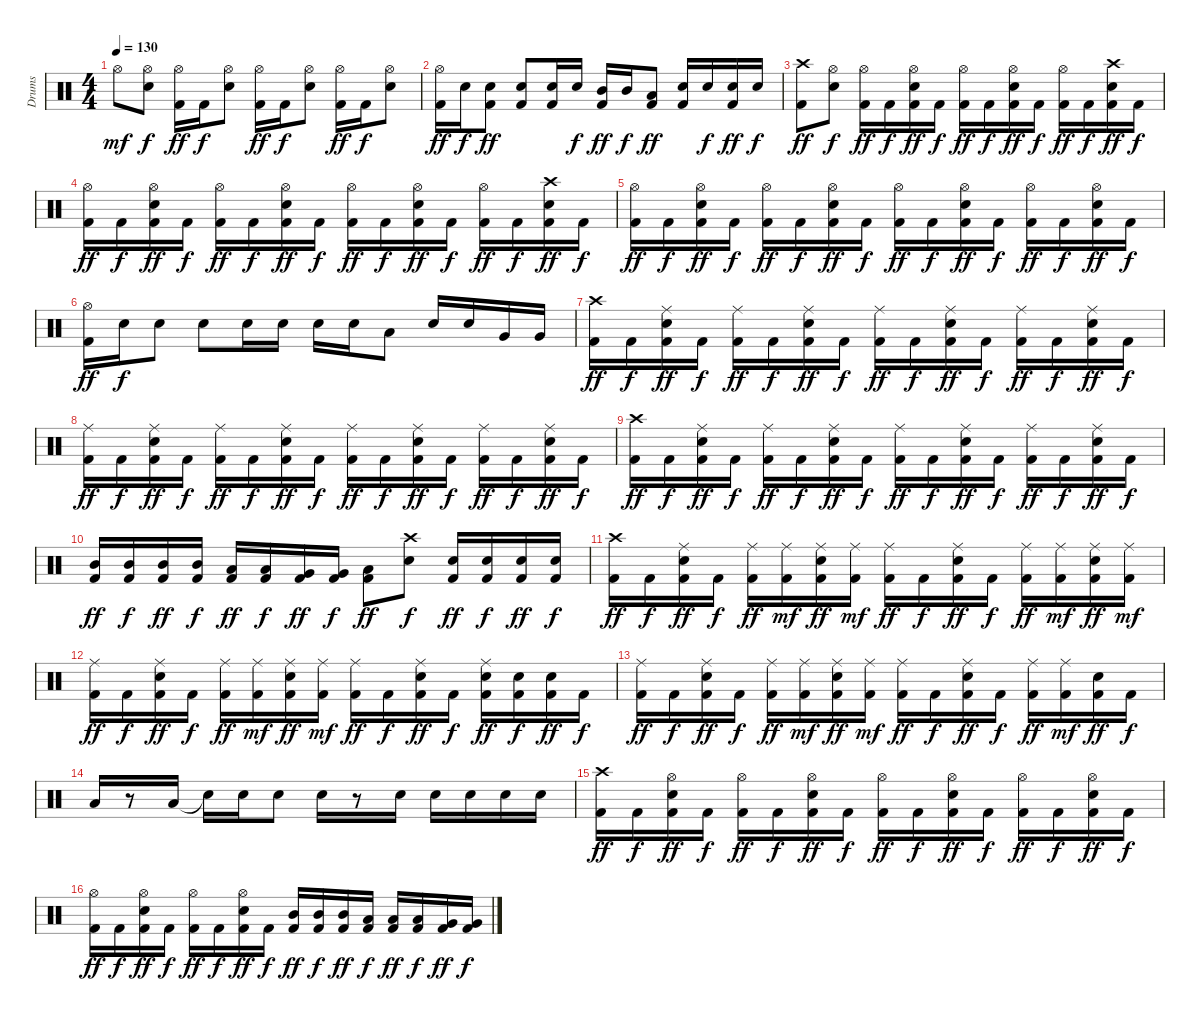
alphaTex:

\track ("Drums" "Drums") {instrument percussion}
\staff {score}
\articulation defaults
\ts (4 4)
\tempo 130
\clef neutral
\ks c "Hi-Hat (open)".8{dy mf}
("Hi-Hat (open)" "Electric Snare (hit)").8{dy f} ("Hi-Hat (open)" "Kick (hit) 2").16{dy ff} "Kick (hit) 2".16{dy f} ("Hi-Hat (open)" "Electric Snare (hit)").8 ("Hi-Hat (open)" "Kick (hit) 2").16{dy ff} "Kick (hit) 2".16{dy f} ("Hi-Hat (open)" "Electric Snare (hit)").8 ("Hi-Hat (open)" "Kick (hit) 2").16{dy ff} "Kick (hit) 2".16{dy f} ("Hi-Hat (open)" "Electric Snare (hit)").8 |
("Hi-Hat (open)" "Kick (hit) 2").16{dy ff} "Electric Snare (hit)".16{dy f} ("Electric Snare (hit)" "Kick (hit) 2").8{dy ff} ("Electric Snare (hit)" "Kick (hit) 2").8 ("Electric Snare (hit)" "Kick (hit) 2").16 "Electric Snare (hit)".16{dy f} ("Mid Tom (hit)" "Kick (hit) 2").16{dy ff} "Mid Tom (hit)".16{dy f} ("Low Tom (hit)" "Kick (hit) 2").8{dy ff} ("Electric Snare (hit)" "Kick (hit) 2").16 "Electric Snare (hit)".16{dy f} ("Electric Snare (hit)" "Kick (hit) 2").16{dy ff} "Electric Snare (hit)".16{dy f} |
("Crash high (hit)" "Kick (hit) 2").8{dy ff} ("Hi-Hat (open)" "Electric Snare (hit)").8{dy f} ("Hi-Hat (open)" "Kick (hit) 2").16{dy ff} "Kick (hit) 2".16{dy f} ("Hi-Hat (open)" "Electric Snare (hit)" "Kick (hit) 2").16{dy ff} "Kick (hit) 2".16{dy f} ("Hi-Hat (open)" "Kick (hit) 2").16{dy ff} "Kick (hit) 2".16{dy f} ("Hi-Hat (open)" "Electric Snare (hit)" "Kick (hit) 2").16{dy ff} "Kick (hit) 2".16{dy f} ("Hi-Hat (open)" "Kick (hit) 2").16{dy ff} "Kick (hit) 2".16{dy f} ("Crash high (hit)" "Electric Snare (hit)" "Kick (hit) 2").16{dy ff} "Kick (hit) 2".16{dy f} |
("Hi-Hat (open)" "Kick (hit) 2").16{dy ff} "Kick (hit) 2".16{dy f} ("Hi-Hat (open)" "Electric Snare (hit)" "Kick (hit) 2").16{dy ff} "Kick (hit) 2".16{dy f} ("Hi-Hat (open)" "Kick (hit) 2").16{dy ff} "Kick (hit) 2".16{dy f} ("Hi-Hat (open)" "Electric Snare (hit)" "Kick (hit) 2").16{dy ff} "Kick (hit) 2".16{dy f} ("Hi-Hat (open)" "Kick (hit) 2").16{dy ff} "Kick (hit) 2".16{dy f} ("Hi-Hat (open)" "Electric Snare (hit)" "Kick (hit) 2").16{dy ff} "Kick (hit) 2".16{dy f} ("Hi-Hat (open)" "Kick (hit) 2").16{dy ff} "Kick (hit) 2".16{dy f} ("Crash high (hit)" "Electric Snare (hit)" "Kick (hit) 2").16{dy ff} "Kick (hit) 2".16{dy f} |
("Hi-Hat (open)" "Kick (hit) 2").16{dy ff} "Kick (hit) 2".16{dy f} ("Hi-Hat (open)" "Electric Snare (hit)" "Kick (hit) 2").16{dy ff} "Kick (hit) 2".16{dy f} ("Hi-Hat (open)" "Kick (hit) 2").16{dy ff} "Kick (hit) 2".16{dy f} ("Hi-Hat (open)" "Electric Snare (hit)" "Kick (hit) 2").16{dy ff} "Kick (hit) 2".16{dy f} ("Hi-Hat (open)" "Kick (hit) 2").16{dy ff} "Kick (hit) 2".16{dy f} ("Hi-Hat (open)" "Electric Snare (hit)" "Kick (hit) 2").16{dy ff} "Kick (hit) 2".16{dy f} ("Hi-Hat (open)" "Kick (hit) 2").16{dy ff} "Kick (hit) 2".16{dy f} ("Hi-Hat (open)" "Electric Snare (hit)" "Kick (hit) 2").16{dy ff} "Kick (hit) 2".16{dy f} |
("Hi-Hat (open)" "Kick (hit) 2").16{dy ff} "Electric Snare (hit)".16{dy f} "Electric Snare (hit)".8 "Electric Snare (hit)".8 "Electric Snare (hit)".16 "Electric Snare (hit)".16 "Electric Snare (hit)".16 "Electric Snare (hit)".16 "Low Tom (hit)".8 "Electric Snare (hit)".16 "Electric Snare (hit)".16 "Very Low Tom (hit)".16 "Very Low Tom (hit)".16 |
("Crash high (hit)" "Kick (hit) 2").16{dy ff} "Kick (hit) 2".16{dy f} ("Ride (middle)" "Electric Snare (hit)" "Kick (hit) 2").16{dy ff} "Kick (hit) 2".16{dy f} ("Ride (middle)" "Kick (hit) 2").16{dy ff} "Kick (hit) 2".16{dy f} ("Ride (middle)" "Electric Snare (hit)" "Kick (hit) 2").16{dy ff} "Kick (hit) 2".16{dy f} ("Ride (middle)" "Kick (hit) 2").16{dy ff} "Kick (hit) 2".16{dy f} ("Ride (middle)" "Electric Snare (hit)" "Kick (hit) 2").16{dy ff} "Kick (hit) 2".16{dy f} ("Ride (middle)" "Kick (hit) 2").16{dy ff} "Kick (hit) 2".16{dy f} ("Ride (middle)" "Electric Snare (hit)" "Kick (hit) 2").16{dy ff} "Kick (hit) 2".16{dy f} |
("Ride (middle)" "Kick (hit) 2").16{dy ff} "Kick (hit) 2".16{dy f} ("Ride (middle)" "Electric Snare (hit)" "Kick (hit) 2").16{dy ff} "Kick (hit) 2".16{dy f} ("Ride (middle)" "Kick (hit) 2").16{dy ff} "Kick (hit) 2".16{dy f} ("Ride (middle)" "Electric Snare (hit)" "Kick (hit) 2").16{dy ff} "Kick (hit) 2".16{dy f} ("Ride (middle)" "Kick (hit) 2").16{dy ff} "Kick (hit) 2".16{dy f} ("Ride (middle)" "Electric Snare (hit)" "Kick (hit) 2").16{dy ff} "Kick (hit) 2".16{dy f} ("Ride (middle)" "Kick (hit) 2").16{dy ff} "Kick (hit) 2".16{dy f} ("Ride (middle)" "Electric Snare (hit)" "Kick (hit) 2").16{dy ff} "Kick (hit) 2".16{dy f} |
("Crash high (hit)" "Kick (hit) 2").16{dy ff} "Kick (hit) 2".16{dy f} ("Ride (middle)" "Electric Snare (hit)" "Kick (hit) 2").16{dy ff} "Kick (hit) 2".16{dy f} ("Ride (middle)" "Kick (hit) 2").16{dy ff} "Kick (hit) 2".16{dy f} ("Ride (middle)" "Electric Snare (hit)" "Kick (hit) 2").16{dy ff} "Kick (hit) 2".16{dy f} ("Ride (middle)" "Kick (hit) 2").16{dy ff} "Kick (hit) 2".16{dy f} ("Ride (middle)" "Electric Snare (hit)" "Kick (hit) 2").16{dy ff} "Kick (hit) 2".16{dy f} ("Ride (middle)" "Kick (hit) 2").16{dy ff} "Kick (hit) 2".16{dy f} ("Ride (middle)" "Electric Snare (hit)" "Kick (hit) 2").16{dy ff} "Kick (hit) 2".16{dy f} |
("Mid Tom (hit)" "Kick (hit) 2").16{dy ff} ("Mid Tom (hit)" "Kick (hit) 2").16{dy f} ("Mid Tom (hit)" "Kick (hit) 2").16{dy ff} ("Mid Tom (hit)" "Kick (hit) 2").16{dy f} ("Low Tom (hit)" "Kick (hit) 2").16{dy ff} ("Low Tom (hit)" "Kick (hit) 2").16{dy f} ("Very Low Tom (hit)" "Kick (hit) 2").16{dy ff} ("Very Low Tom (hit)" "Kick (hit) 2").16{dy f} ("Low Floor Tom (hit)" "Kick (hit) 2").8{dy ff} ("Crash high (hit)" "Electric Snare (hit)").8{dy f} ("Electric Snare (hit)" "Kick (hit) 2").16{dy ff} ("Electric Snare (hit)" "Kick (hit) 2").16{dy f} ("Electric Snare (hit)" "Kick (hit) 2").16{dy ff} ("Electric Snare (hit)" "Kick (hit) 2").16{dy f} |
("Crash high (hit)" "Kick (hit) 2").16{dy ff} "Kick (hit) 2".16{dy f} ("Ride (middle)" "Electric Snare (hit)" "Kick (hit) 2").16{dy ff} "Kick (hit) 2".16{dy f} ("Ride (middle)" "Kick (hit) 2").16{dy ff} ("Ride (middle)" "Kick (hit) 2").16{dy mf} ("Ride (middle)" "Electric Snare (hit)" "Kick (hit) 2").16{dy ff} ("Ride (middle)" "Kick (hit) 2").16{dy mf} ("Ride (middle)" "Kick (hit) 2").16{dy ff} "Kick (hit) 2".16{dy f} ("Ride (middle)" "Electric Snare (hit)" "Kick (hit) 2").16{dy ff} "Kick (hit) 2".16{dy f} ("Ride (middle)" "Kick (hit) 2").16{dy ff} ("Ride (middle)" "Kick (hit) 2").16{dy mf} ("Ride (middle)" "Electric Snare (hit)" "Kick (hit) 2").16{dy ff} ("Ride (middle)" "Kick (hit) 2").16{dy mf} |
("Ride (middle)" "Kick (hit) 2").16{dy ff} "Kick (hit) 2".16{dy f} ("Ride (middle)" "Electric Snare (hit)" "Kick (hit) 2").16{dy ff} "Kick (hit) 2".16{dy f} ("Ride (middle)" "Kick (hit) 2").16{dy ff} ("Ride (middle)" "Kick (hit) 2").16{dy mf} ("Ride (middle)" "Electric Snare (hit)" "Kick (hit) 2").16{dy ff} ("Ride (middle)" "Kick (hit) 2").16{dy mf} ("Ride (middle)" "Kick (hit) 2").16{dy ff} "Kick (hit) 2".16{dy f} ("Ride (middle)" "Electric Snare (hit)" "Kick (hit) 2").16{dy ff} "Kick (hit) 2".16{dy f} ("Ride (middle)" "Electric Snare (hit)" "Kick (hit) 2").16{dy ff} ("Electric Snare (hit)" "Kick (hit) 2").16{dy f} ("Electric Snare (hit)" "Kick (hit) 2").16{dy ff} "Kick (hit) 2".16{dy f} |
("Ride (middle)" "Kick (hit) 2").16{dy ff} "Kick (hit) 2".16{dy f} ("Ride (middle)" "Electric Snare (hit)" "Kick (hit) 2").16{dy ff} "Kick (hit) 2".16{dy f} ("Ride (middle)" "Kick (hit) 2").16{dy ff} ("Ride (middle)" "Kick (hit) 2").16{dy mf} ("Ride (middle)" "Electric Snare (hit)" "Kick (hit) 2").16{dy ff} ("Ride (middle)" "Kick (hit) 2").16{dy mf} ("Ride (middle)" "Kick (hit) 2").16{dy ff} "Kick (hit) 2".16{dy f} ("Ride (middle)" "Electric Snare (hit)" "Kick (hit) 2").16{dy ff} "Kick (hit) 2".16{dy f} ("Ride (middle)" "Kick (hit) 2").16{dy ff} ("Ride (middle)" "Kick (hit) 2").16{dy mf} ("Electric Snare (hit)" "Kick (hit) 2").16{dy ff} "Kick (hit) 2".16{dy f} |
"Low Floor Tom (hit)".16 r.8 "Low Tom (hit)".16 "Snare (hit)"{t}.16 "Electric Snare (hit)".16 "Electric Snare (hit)".8 "Electric Snare (hit)".16 r.8 "Electric Snare (hit)".16 "Electric Snare (hit)".16 "Electric Snare (hit)".16 "Electric Snare (hit)".16 "Electric Snare (hit)".16 |
("Crash high (hit)" "Kick (hit) 2").16{dy ff} "Kick (hit) 2".16{dy f} ("Hi-Hat (open)" "Electric Snare (hit)" "Kick (hit) 2").16{dy ff} "Kick (hit) 2".16{dy f} ("Hi-Hat (open)" "Kick (hit) 2").16{dy ff} "Kick (hit) 2".16{dy f} ("Hi-Hat (open)" "Electric Snare (hit)" "Kick (hit) 2").16{dy ff} "Kick (hit) 2".16{dy f} ("Hi-Hat (open)" "Kick (hit) 2").16{dy ff} "Kick (hit) 2".16{dy f} ("Hi-Hat (open)" "Electric Snare (hit)" "Kick (hit) 2").16{dy ff} "Kick (hit) 2".16{dy f} ("Hi-Hat (open)" "Kick (hit) 2").16{dy ff} "Kick (hit) 2".16{dy f} ("Hi-Hat (open)" "Electric Snare (hit)" "Kick (hit) 2").16{dy ff} "Kick (hit) 2".16{dy f} |
("Hi-Hat (open)" "Kick (hit) 2").16{dy ff} "Kick (hit) 2".16{dy f} ("Hi-Hat (open)" "Electric Snare (hit)" "Kick (hit) 2").16{dy ff} "Kick (hit) 2".16{dy f} ("Hi-Hat (open)" "Kick (hit) 2").16{dy ff} "Kick (hit) 2".16{dy f} ("Hi-Hat (open)" "Electric Snare (hit)" "Kick (hit) 2").16{dy ff} "Kick (hit) 2".16{dy f} ("Mid Tom (hit)" "Kick (hit) 2").16{dy ff} ("Mid Tom (hit)" "Kick (hit) 2").16{dy f} ("Mid Tom (hit)" "Kick (hit) 2").16{dy ff} ("Low Tom (hit)" "Kick (hit) 2").16{dy f} ("Low Tom (hit)" "Kick (hit) 2").16{dy ff} ("Low Tom (hit)" "Kick (hit) 2").16{dy f} ("Very Low Tom (hit)" "Kick (hit) 2").16{dy ff} ("Very Low Tom (hit)" "Kick (hit) 2").16{dy f}
